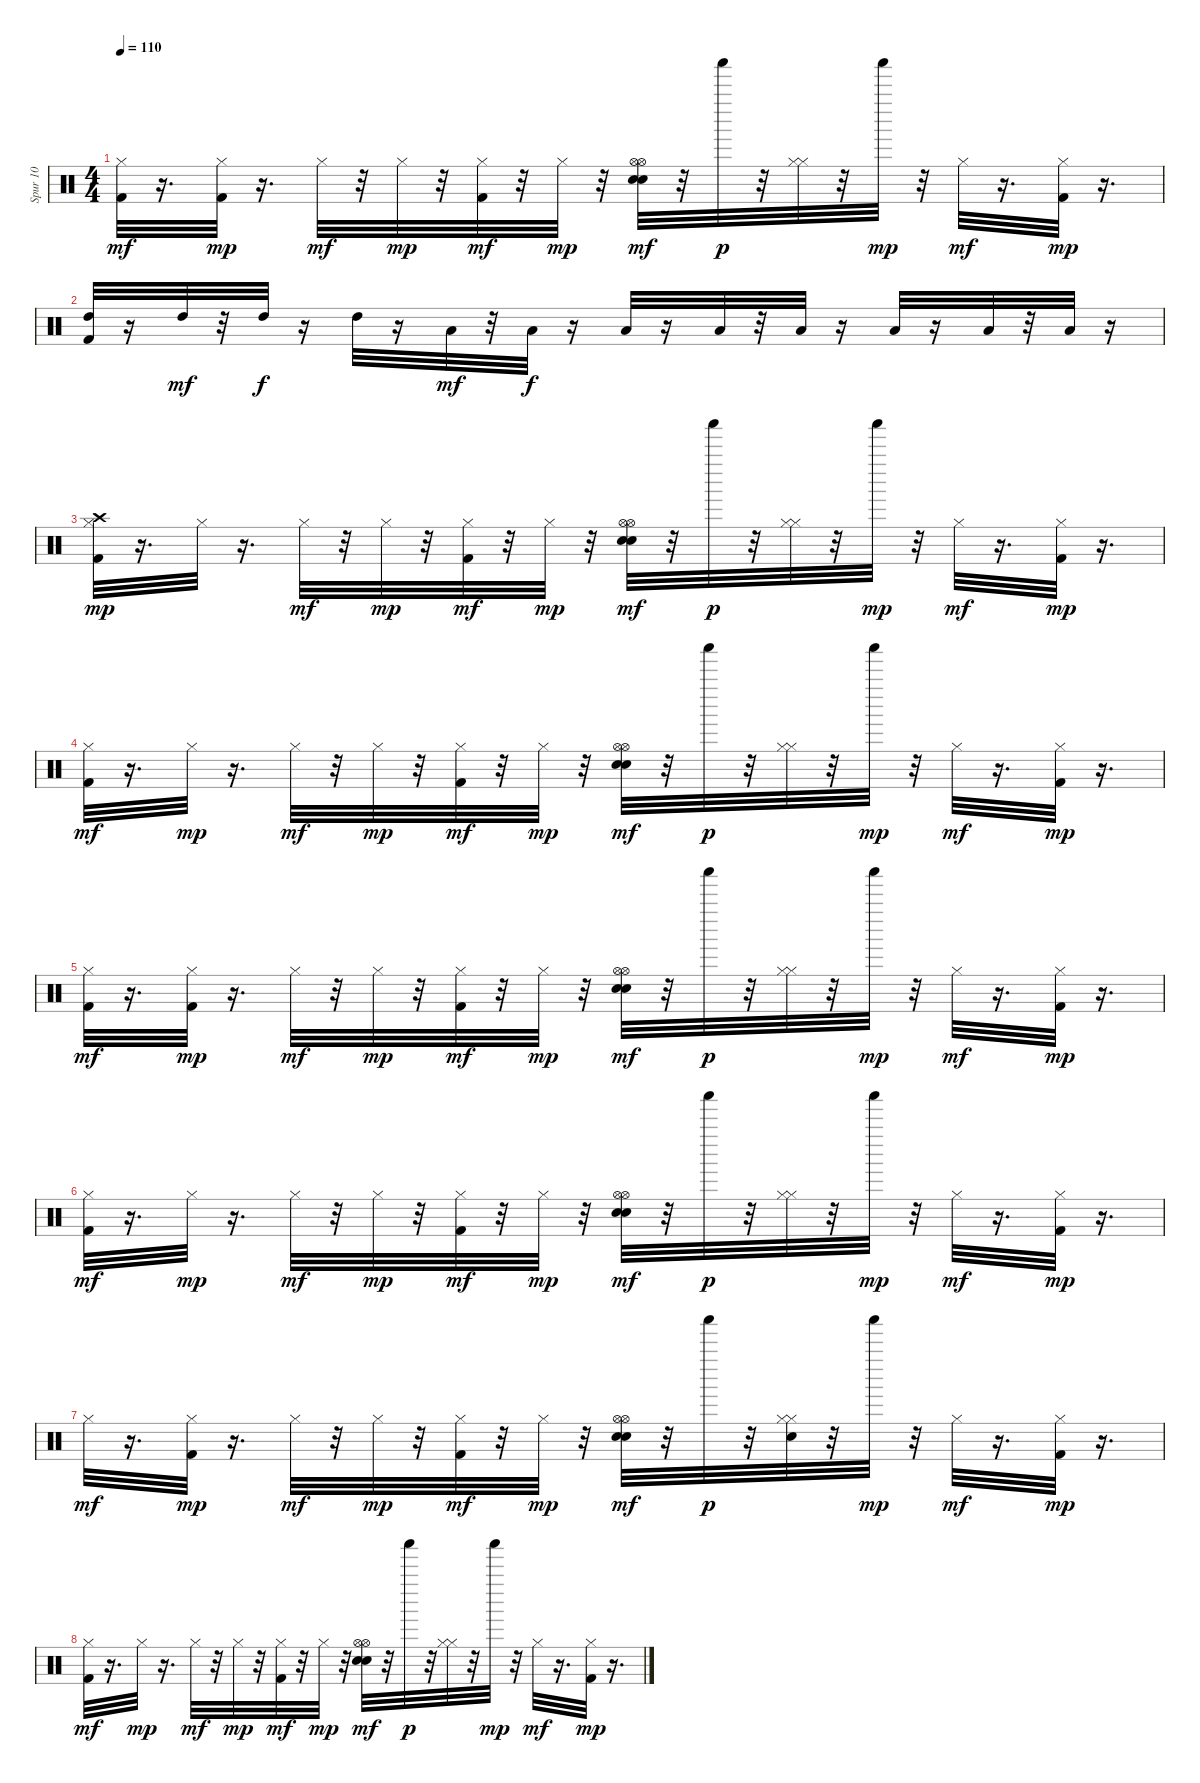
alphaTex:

\track ("Spur 10" "Spur 10") {instrument percussion}
\staff {score}
\articulation defaults
\ts (4 4)
\tempo 110
\clef neutral
\ks c
("Kick (hit) 2" "Hi-Hat (closed)").32{dy mf} r.16{d} ("Kick (hit) 2" "Hi-Hat (closed)").32{dy mp} r.16{d} "Hi-Hat (closed)".32{dy mf} r.32 "Hi-Hat (closed)".32{dy mp} r.32 ("Kick (hit) 2" "Hi-Hat (closed)").32{dy mf} r.32 "Hi-Hat (closed)".32{dy mp} r.32 ("Hi-Hat (open)" "Snare (hit) 2" "Electric Snare (hit)" "Hi-Hat (open)").32{dy mf} r.32 "Shaker (hit)".32{dy p} r.32 ("Hi-Hat (closed)" "Hi-Hat (closed)").32 r.32 "Shaker (hit)".32{dy mp} r.32 "Hi-Hat (closed)".32{dy mf} r.16{d} ("Kick (hit) 2" "Hi-Hat (closed)").32{dy mp} r.16{d} |
("Kick (hit) 2" "High Tom (hit)").32 r.16 "High Tom (hit)".32{dy mf} r.32 "High Tom (hit)".32{dy f} r.16 "High Tom (hit)".32 r.16 "Low Tom (hit)".32{dy mf} r.32 "Low Tom (hit)".32{dy f} r.16 "Low Tom (hit)".32 r.16 "Low Tom (hit)".32 r.32 "Low Floor Tom (hit)".32 r.16 "Low Floor Tom (hit)".32 r.16 "Low Floor Tom (hit)".32 r.32 "Low Floor Tom (hit)".32 r.16 |
("Kick (hit) 2" "Hi-Hat (closed)" "Crash high (hit)").32{dy mp} r.16{d} "Hi-Hat (closed)".32 r.16{d} "Hi-Hat (closed)".32{dy mf} r.32 "Hi-Hat (closed)".32{dy mp} r.32 ("Kick (hit) 2" "Hi-Hat (closed)").32{dy mf} r.32 "Hi-Hat (closed)".32{dy mp} r.32 ("Hi-Hat (open)" "Snare (hit) 2" "Electric Snare (hit)" "Hi-Hat (open)").32{dy mf} r.32 "Shaker (hit)".32{dy p} r.32 ("Hi-Hat (closed)" "Hi-Hat (closed)").32 r.32 "Shaker (hit)".32{dy mp} r.32 "Hi-Hat (closed)".32{dy mf} r.16{d} ("Kick (hit) 2" "Hi-Hat (closed)").32{dy mp} r.16{d} |
("Kick (hit) 2" "Hi-Hat (closed)").32{dy mf} r.16{d} "Hi-Hat (closed)".32{dy mp} r.16{d} "Hi-Hat (closed)".32{dy mf} r.32 "Hi-Hat (closed)".32{dy mp} r.32 ("Kick (hit) 2" "Hi-Hat (closed)").32{dy mf} r.32 "Hi-Hat (closed)".32{dy mp} r.32 ("Hi-Hat (open)" "Snare (hit) 2" "Electric Snare (hit)" "Hi-Hat (open)").32{dy mf} r.32 "Shaker (hit)".32{dy p} r.32 ("Hi-Hat (closed)" "Hi-Hat (closed)").32 r.32 "Shaker (hit)".32{dy mp} r.32 "Hi-Hat (closed)".32{dy mf} r.16{d} ("Kick (hit) 2" "Hi-Hat (closed)").32{dy mp} r.16{d} |
("Kick (hit) 2" "Hi-Hat (closed)").32{dy mf} r.16{d} ("Kick (hit) 2" "Hi-Hat (closed)").32{dy mp} r.16{d} "Hi-Hat (closed)".32{dy mf} r.32 "Hi-Hat (closed)".32{dy mp} r.32 ("Kick (hit) 2" "Hi-Hat (closed)").32{dy mf} r.32 "Hi-Hat (closed)".32{dy mp} r.32 ("Hi-Hat (open)" "Snare (hit) 2" "Electric Snare (hit)" "Hi-Hat (open)").32{dy mf} r.32 "Shaker (hit)".32{dy p} r.32 ("Hi-Hat (closed)" "Hi-Hat (closed)").32 r.32 "Shaker (hit)".32{dy mp} r.32 "Hi-Hat (closed)".32{dy mf} r.16{d} ("Kick (hit) 2" "Hi-Hat (closed)").32{dy mp} r.16{d} |
("Kick (hit) 2" "Hi-Hat (closed)").32{dy mf} r.16{d} "Hi-Hat (closed)".32{dy mp} r.16{d} "Hi-Hat (closed)".32{dy mf} r.32 "Hi-Hat (closed)".32{dy mp} r.32 ("Kick (hit) 2" "Hi-Hat (closed)").32{dy mf} r.32 "Hi-Hat (closed)".32{dy mp} r.32 ("Hi-Hat (open)" "Snare (hit) 2" "Electric Snare (hit)" "Hi-Hat (open)").32{dy mf} r.32 "Shaker (hit)".32{dy p} r.32 ("Hi-Hat (closed)" "Hi-Hat (closed)").32 r.32 "Shaker (hit)".32{dy mp} r.32 "Hi-Hat (closed)".32{dy mf} r.16{d} ("Kick (hit) 2" "Hi-Hat (closed)").32{dy mp} r.16{d} |
"Hi-Hat (closed)".32{dy mf} r.16{d} ("Kick (hit) 2" "Hi-Hat (closed)").32{dy mp} r.16{d} "Hi-Hat (closed)".32{dy mf} r.32 "Hi-Hat (closed)".32{dy mp} r.32 ("Kick (hit) 2" "Hi-Hat (closed)").32{dy mf} r.32 "Hi-Hat (closed)".32{dy mp} r.32 ("Hi-Hat (open)" "Snare (hit) 2" "Electric Snare (hit)" "Hi-Hat (open)").32{dy mf} r.32 "Shaker (hit)".32{dy p} r.32 ("Snare (hit) 2" "Hi-Hat (closed)" "Hi-Hat (closed)").32 r.32 "Shaker (hit)".32{dy mp} r.32 "Hi-Hat (closed)".32{dy mf} r.16{d} ("Kick (hit) 2" "Hi-Hat (closed)").32{dy mp} r.16{d} |
("Kick (hit) 2" "Hi-Hat (closed)").32{dy mf} r.16{d} "Hi-Hat (closed)".32{dy mp} r.16{d} "Hi-Hat (closed)".32{dy mf} r.32 "Hi-Hat (closed)".32{dy mp} r.32 ("Kick (hit) 2" "Hi-Hat (closed)").32{dy mf} r.32 "Hi-Hat (closed)".32{dy mp} r.32 ("Hi-Hat (open)" "Snare (hit) 2" "Electric Snare (hit)" "Hi-Hat (open)").32{dy mf} r.32 "Shaker (hit)".32{dy p} r.32 ("Hi-Hat (closed)" "Hi-Hat (closed)").32 r.32 "Shaker (hit)".32{dy mp} r.32 "Hi-Hat (closed)".32{dy mf} r.16{d} ("Kick (hit) 2" "Hi-Hat (closed)").32{dy mp} r.16{d}
